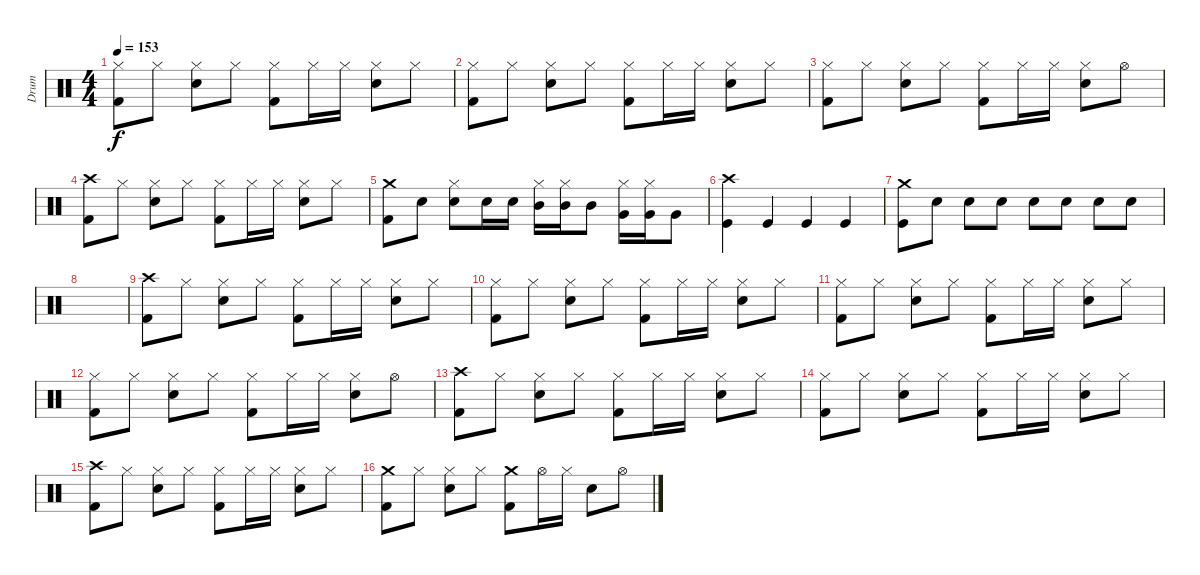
\track ("Drum" "Drum") {instrument percussion}
\staff {score}
\articulation defaults
\ts (4 4)
\tempo 153
\clef neutral
\ks c
("Hi-Hat (closed)" "Kick (hit) 2").8{dy f} "Hi-Hat (closed)".8 ("Hi-Hat (closed)" "Electric Snare (hit)").8 "Hi-Hat (closed)".8 ("Hi-Hat (closed)" "Kick (hit) 2").8 "Hi-Hat (closed)".16 "Hi-Hat (closed)".16 ("Hi-Hat (closed)" "Electric Snare (hit)").8 "Hi-Hat (closed)".8 |
("Hi-Hat (closed)" "Kick (hit) 2").8 "Hi-Hat (closed)".8 ("Hi-Hat (closed)" "Electric Snare (hit)").8 "Hi-Hat (closed)".8 ("Hi-Hat (closed)" "Kick (hit) 2").8 "Hi-Hat (closed)".16 "Hi-Hat (closed)".16 ("Hi-Hat (closed)" "Electric Snare (hit)").8 "Hi-Hat (closed)".8 |
("Hi-Hat (closed)" "Kick (hit) 2").8 "Hi-Hat (closed)".8 ("Hi-Hat (closed)" "Electric Snare (hit)").8 "Hi-Hat (closed)".8 ("Hi-Hat (closed)" "Kick (hit) 2").8 "Hi-Hat (closed)".16 "Hi-Hat (closed)".16 ("Hi-Hat (closed)" "Electric Snare (hit)").8 "Hi-Hat (open)".8 |
("Kick (hit) 2" "Crash high (hit)").8 "Hi-Hat (closed)".8 ("Hi-Hat (closed)" "Electric Snare (hit)").8 "Hi-Hat (closed)".8 ("Hi-Hat (closed)" "Kick (hit) 2").8 "Hi-Hat (closed)".16 "Hi-Hat (closed)".16 ("Hi-Hat (closed)" "Electric Snare (hit)").8 "Hi-Hat (closed)".8 |
("Crash medium (hit)" "Kick (hit) 2").8 "Electric Snare (hit)".8 ("Hi-Hat (closed)" "Electric Snare (hit)").8 "Electric Snare (hit)".16 "Electric Snare (hit)".16 ("Hi-Hat (closed)" "Mid Tom (hit)").16 ("Hi-Hat (closed)" "Mid Tom (hit)").16 "Mid Tom (hit)".8 ("Hi-Hat (closed)" "Very Low Tom (hit)").16 ("Hi-Hat (closed)" "Very Low Tom (hit)").16 "Very Low Tom (hit)".8 |
("Kick (hit)" "Crash high (hit)").4 "Kick (hit)".4 "Kick (hit)".4 "Kick (hit)".4 |
("Kick (hit)" "Crash medium (hit)").8 "Snare (hit) 2".8 "Snare (hit) 2".8 "Snare (hit) 2".8 "Snare (hit) 2".8 "Snare (hit) 2".8 "Snare (hit) 2".8 "Snare (hit) 2".8 |
|
("Kick (hit) 2" "Crash high (hit)").8 "Hi-Hat (closed)".8 ("Hi-Hat (closed)" "Snare (hit) 2").8 "Hi-Hat (closed)".8 ("Hi-Hat (closed)" "Kick (hit) 2").8 "Hi-Hat (closed)".16 "Hi-Hat (closed)".16 ("Hi-Hat (closed)" "Snare (hit) 2").8 "Hi-Hat (closed)".8 |
("Hi-Hat (closed)" "Kick (hit) 2").8 "Hi-Hat (closed)".8 ("Hi-Hat (closed)" "Snare (hit) 2").8 "Hi-Hat (closed)".8 ("Hi-Hat (closed)" "Kick (hit) 2").8 "Hi-Hat (closed)".16 "Hi-Hat (closed)".16 ("Hi-Hat (closed)" "Snare (hit) 2").8 "Hi-Hat (closed)".8 |
("Hi-Hat (closed)" "Kick (hit) 2").8 "Hi-Hat (closed)".8 ("Hi-Hat (closed)" "Snare (hit) 2").8 "Hi-Hat (closed)".8 ("Hi-Hat (closed)" "Kick (hit) 2").8 "Hi-Hat (closed)".16 "Hi-Hat (closed)".16 ("Hi-Hat (closed)" "Snare (hit) 2").8 "Hi-Hat (closed)".8 |
("Hi-Hat (closed)" "Kick (hit) 2").8 "Hi-Hat (closed)".8 ("Hi-Hat (closed)" "Snare (hit) 2").8 "Hi-Hat (closed)".8 ("Hi-Hat (closed)" "Kick (hit) 2").8 "Hi-Hat (closed)".16 "Hi-Hat (closed)".16 ("Hi-Hat (closed)" "Snare (hit) 2").8 "Hi-Hat (open)".8 |
("Kick (hit) 2" "Crash high (hit)").8 "Hi-Hat (closed)".8 ("Hi-Hat (closed)" "Snare (hit) 2").8 "Hi-Hat (closed)".8 ("Hi-Hat (closed)" "Kick (hit) 2").8 "Hi-Hat (closed)".16 "Hi-Hat (closed)".16 ("Hi-Hat (closed)" "Snare (hit) 2").8 "Hi-Hat (closed)".8 |
("Hi-Hat (closed)" "Kick (hit) 2").8 "Hi-Hat (closed)".8 ("Hi-Hat (closed)" "Snare (hit) 2").8 "Hi-Hat (closed)".8 ("Hi-Hat (closed)" "Kick (hit) 2").8 "Hi-Hat (closed)".16 "Hi-Hat (closed)".16 ("Hi-Hat (closed)" "Snare (hit) 2").8 "Hi-Hat (closed)".8 |
("Kick (hit) 2" "Crash high (hit)").8 "Hi-Hat (closed)".8 ("Hi-Hat (closed)" "Snare (hit) 2").8 "Hi-Hat (closed)".8 ("Hi-Hat (closed)" "Kick (hit) 2").8 "Hi-Hat (closed)".16 "Hi-Hat (closed)".16 ("Hi-Hat (closed)" "Snare (hit) 2").8 "Hi-Hat (closed)".8 |
("Crash medium (hit)" "Kick (hit) 2").8 "Hi-Hat (closed)".8 ("Hi-Hat (closed)" "Snare (hit) 2").8 "Hi-Hat (closed)".8 ("Kick (hit) 2" "Crash medium (hit)").8 "Hi-Hat (open)".16 "Hi-Hat (closed)".16 "Snare (hit) 2".8 "Hi-Hat (open)".8
